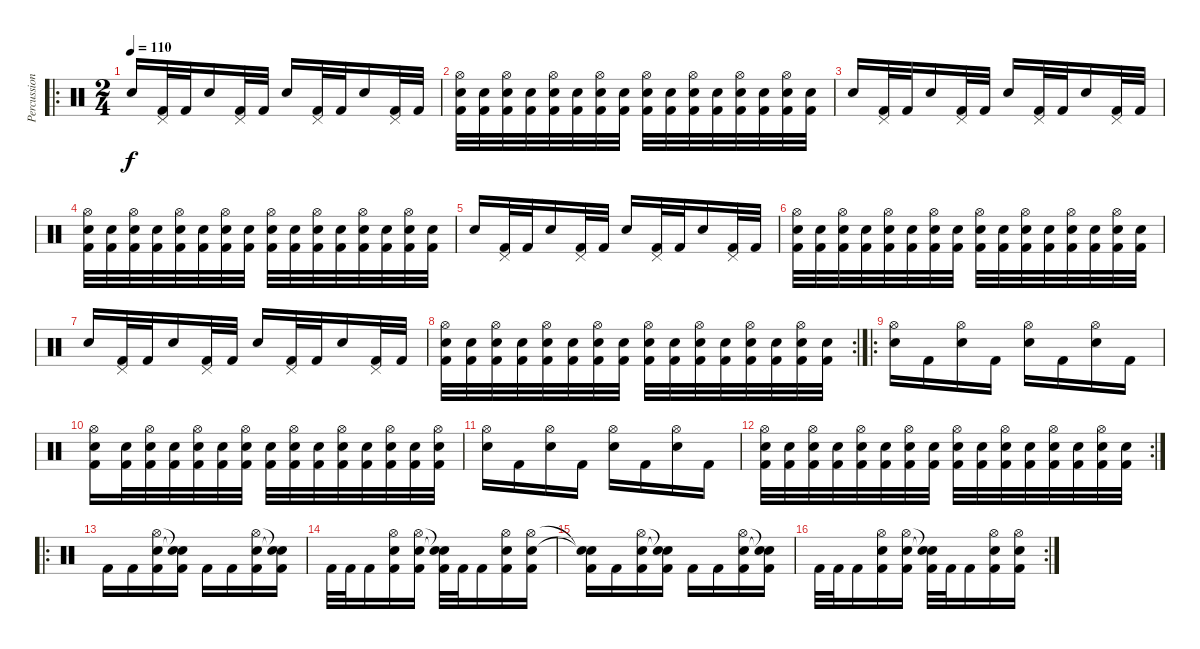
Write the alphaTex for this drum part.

\track ("Percussion" "Percussion") {instrument percussion}
\staff {score}
\articulation defaults
\ro
\ts (2 4)
\tempo 110
\clef neutral
\ks c "Snare (hit) 2".16{dy f}
("Pedal Hi-Hat (hit)" "Kick (hit) 2").32 "Kick (hit) 2".32 "Snare (hit) 2".16 ("Pedal Hi-Hat (hit)" "Kick (hit) 2").32 "Kick (hit) 2".32 "Snare (hit) 2".16 ("Pedal Hi-Hat (hit)" "Kick (hit) 2").32 "Kick (hit) 2".32 "Snare (hit) 2".16 ("Pedal Hi-Hat (hit)" "Kick (hit) 2").32 "Kick (hit) 2".32 |
("Snare (hit) 2" "Hi-Hat (open)" "Kick (hit) 2").32 ("Snare (hit) 2" "Kick (hit) 2").32 ("Snare (hit) 2" "Hi-Hat (open)" "Kick (hit) 2").32 ("Snare (hit) 2" "Kick (hit) 2").32 ("Snare (hit) 2" "Hi-Hat (open)" "Kick (hit) 2").32 ("Snare (hit) 2" "Kick (hit) 2").32 ("Snare (hit) 2" "Hi-Hat (open)" "Kick (hit) 2").32 ("Snare (hit) 2" "Kick (hit) 2").32 ("Snare (hit) 2" "Hi-Hat (open)" "Kick (hit) 2").32 ("Snare (hit) 2" "Kick (hit) 2").32 ("Snare (hit) 2" "Hi-Hat (open)" "Kick (hit) 2").32 ("Snare (hit) 2" "Kick (hit) 2").32 ("Snare (hit) 2" "Hi-Hat (open)" "Kick (hit) 2").32 ("Snare (hit) 2" "Kick (hit) 2").32 ("Snare (hit) 2" "Hi-Hat (open)" "Kick (hit) 2").32 ("Snare (hit) 2" "Kick (hit) 2").32 |
"Snare (hit) 2".16 ("Pedal Hi-Hat (hit)" "Kick (hit) 2").32 "Kick (hit) 2".32 "Snare (hit) 2".16 ("Pedal Hi-Hat (hit)" "Kick (hit) 2").32 "Kick (hit) 2".32 "Snare (hit) 2".16 ("Pedal Hi-Hat (hit)" "Kick (hit) 2").32 "Kick (hit) 2".32 "Snare (hit) 2".16 ("Pedal Hi-Hat (hit)" "Kick (hit) 2").32 "Kick (hit) 2".32 |
("Snare (hit) 2" "Hi-Hat (open)" "Kick (hit) 2").32 ("Snare (hit) 2" "Kick (hit) 2").32 ("Snare (hit) 2" "Hi-Hat (open)" "Kick (hit) 2").32 ("Snare (hit) 2" "Kick (hit) 2").32 ("Snare (hit) 2" "Hi-Hat (open)" "Kick (hit) 2").32 ("Snare (hit) 2" "Kick (hit) 2").32 ("Snare (hit) 2" "Hi-Hat (open)" "Kick (hit) 2").32 ("Snare (hit) 2" "Kick (hit) 2").32 ("Snare (hit) 2" "Hi-Hat (open)" "Kick (hit) 2").32 ("Snare (hit) 2" "Kick (hit) 2").32 ("Snare (hit) 2" "Hi-Hat (open)" "Kick (hit) 2").32 ("Snare (hit) 2" "Kick (hit) 2").32 ("Snare (hit) 2" "Hi-Hat (open)" "Kick (hit) 2").32 ("Snare (hit) 2" "Kick (hit) 2").32 ("Snare (hit) 2" "Hi-Hat (open)" "Kick (hit) 2").32 ("Snare (hit) 2" "Kick (hit) 2").32 |
"Snare (hit) 2".16 ("Pedal Hi-Hat (hit)" "Kick (hit) 2").32 "Kick (hit) 2".32 "Snare (hit) 2".16 ("Pedal Hi-Hat (hit)" "Kick (hit) 2").32 "Kick (hit) 2".32 "Snare (hit) 2".16 ("Pedal Hi-Hat (hit)" "Kick (hit) 2").32 "Kick (hit) 2".32 "Snare (hit) 2".16 ("Pedal Hi-Hat (hit)" "Kick (hit) 2").32 "Kick (hit) 2".32 |
("Snare (hit) 2" "Hi-Hat (open)" "Kick (hit) 2").32 ("Snare (hit) 2" "Kick (hit) 2").32 ("Snare (hit) 2" "Hi-Hat (open)" "Kick (hit) 2").32 ("Snare (hit) 2" "Kick (hit) 2").32 ("Snare (hit) 2" "Hi-Hat (open)" "Kick (hit) 2").32 ("Snare (hit) 2" "Kick (hit) 2").32 ("Snare (hit) 2" "Hi-Hat (open)" "Kick (hit) 2").32 ("Snare (hit) 2" "Kick (hit) 2").32 ("Snare (hit) 2" "Hi-Hat (open)" "Kick (hit) 2").32 ("Snare (hit) 2" "Kick (hit) 2").32 ("Snare (hit) 2" "Hi-Hat (open)" "Kick (hit) 2").32 ("Snare (hit) 2" "Kick (hit) 2").32 ("Snare (hit) 2" "Hi-Hat (open)" "Kick (hit) 2").32 ("Snare (hit) 2" "Kick (hit) 2").32 ("Snare (hit) 2" "Hi-Hat (open)" "Kick (hit) 2").32 ("Snare (hit) 2" "Kick (hit) 2").32 |
"Snare (hit) 2".16 ("Pedal Hi-Hat (hit)" "Kick (hit) 2").32 "Kick (hit) 2".32 "Snare (hit) 2".16 ("Pedal Hi-Hat (hit)" "Kick (hit) 2").32 "Kick (hit) 2".32 "Snare (hit) 2".16 ("Pedal Hi-Hat (hit)" "Kick (hit) 2").32 "Kick (hit) 2".32 "Snare (hit) 2".16 ("Pedal Hi-Hat (hit)" "Kick (hit) 2").32 "Kick (hit) 2".32 |
\rc 2
("Snare (hit) 2" "Hi-Hat (open)" "Kick (hit) 2").32 ("Snare (hit) 2" "Kick (hit) 2").32 ("Snare (hit) 2" "Hi-Hat (open)" "Kick (hit) 2").32 ("Snare (hit) 2" "Kick (hit) 2").32 ("Snare (hit) 2" "Hi-Hat (open)" "Kick (hit) 2").32 ("Snare (hit) 2" "Kick (hit) 2").32 ("Snare (hit) 2" "Hi-Hat (open)" "Kick (hit) 2").32 ("Snare (hit) 2" "Kick (hit) 2").32 ("Snare (hit) 2" "Hi-Hat (open)" "Kick (hit) 2").32 ("Snare (hit) 2" "Kick (hit) 2").32 ("Snare (hit) 2" "Hi-Hat (open)" "Kick (hit) 2").32 ("Snare (hit) 2" "Kick (hit) 2").32 ("Snare (hit) 2" "Hi-Hat (open)" "Kick (hit) 2").32 ("Snare (hit) 2" "Kick (hit) 2").32 ("Snare (hit) 2" "Hi-Hat (open)" "Kick (hit) 2").32 ("Snare (hit) 2" "Kick (hit) 2").32 |
\ro
("Hi-Hat (open)" "Snare (hit) 2").16 "Kick (hit) 2".16 ("Hi-Hat (open)" "Snare (hit) 2").16 "Kick (hit) 2".16 ("Hi-Hat (open)" "Snare (hit) 2").16 "Kick (hit) 2".16 ("Hi-Hat (open)" "Snare (hit) 2").16 "Kick (hit) 2".16 |
("Snare (hit) 2" "Hi-Hat (open)" "Kick (hit) 2").16 ("Snare (hit) 2" "Kick (hit) 2").32 ("Snare (hit) 2" "Hi-Hat (open)" "Kick (hit) 2").32 ("Snare (hit) 2" "Kick (hit) 2").32 ("Snare (hit) 2" "Hi-Hat (open)" "Kick (hit) 2").32 ("Snare (hit) 2" "Kick (hit) 2").32 ("Snare (hit) 2" "Hi-Hat (open)" "Kick (hit) 2").32 ("Snare (hit) 2" "Kick (hit) 2").32 ("Snare (hit) 2" "Hi-Hat (open)" "Kick (hit) 2").32 ("Snare (hit) 2" "Kick (hit) 2").32 ("Snare (hit) 2" "Hi-Hat (open)" "Kick (hit) 2").32 ("Snare (hit) 2" "Kick (hit) 2").32 ("Snare (hit) 2" "Hi-Hat (open)" "Kick (hit) 2").32 ("Snare (hit) 2" "Kick (hit) 2").32 ("Snare (hit) 2" "Hi-Hat (open)" "Kick (hit) 2").32 |
("Hi-Hat (open)" "Snare (hit) 2").16 "Kick (hit) 2".16 ("Hi-Hat (open)" "Snare (hit) 2").16 "Kick (hit) 2".16 ("Hi-Hat (open)" "Snare (hit) 2").16 "Kick (hit) 2".16 ("Hi-Hat (open)" "Snare (hit) 2").16 "Kick (hit) 2".16 |
\rc 2
("Snare (hit) 2" "Hi-Hat (open)" "Kick (hit) 2").32 ("Snare (hit) 2" "Kick (hit) 2").32 ("Snare (hit) 2" "Hi-Hat (open)" "Kick (hit) 2").32 ("Snare (hit) 2" "Kick (hit) 2").32 ("Snare (hit) 2" "Hi-Hat (open)" "Kick (hit) 2").32 ("Snare (hit) 2" "Kick (hit) 2").32 ("Snare (hit) 2" "Hi-Hat (open)" "Kick (hit) 2").32 ("Snare (hit) 2" "Kick (hit) 2").32 ("Snare (hit) 2" "Hi-Hat (open)" "Kick (hit) 2").32 ("Snare (hit) 2" "Kick (hit) 2").32 ("Snare (hit) 2" "Hi-Hat (open)" "Kick (hit) 2").32 ("Snare (hit) 2" "Kick (hit) 2").32 ("Snare (hit) 2" "Hi-Hat (open)" "Kick (hit) 2").32 ("Snare (hit) 2" "Kick (hit) 2").32 ("Snare (hit) 2" "Hi-Hat (open)" "Kick (hit) 2").32 ("Snare (hit) 2" "Kick (hit) 2").32 |
\ro "Kick (hit) 2".16 "Kick (hit) 2".16
("Hi-Hat (open)" "Snare (hit) 2" "Kick (hit) 2").16 ("Snare (hit)"{t} "Snare (hit)"{t} "Kick (hit) 2").16 "Kick (hit) 2".16 "Kick (hit) 2".16 ("Hi-Hat (open)" "Snare (hit) 2" "Kick (hit) 2").16 ("Snare (hit)"{t} "Snare (hit)"{t} "Kick (hit) 2").16 |
"Kick (hit) 2".32 "Kick (hit) 2".32 "Kick (hit) 2".16 ("Hi-Hat (open)" "Snare (hit) 2" "Kick (hit) 2").16 ("Hi-Hat (open)" "Snare (hit) 2" "Kick (hit) 2").16 ("Snare (hit)"{t} "Snare (hit)"{t} "Kick (hit) 2").32 "Kick (hit) 2".32 "Kick (hit) 2".16 ("Hi-Hat (open)" "Snare (hit) 2" "Kick (hit) 2").16 ("Hi-Hat (open)" "Snare (hit) 2" "Kick (hit) 2").16 |
("Snare (hit)"{t} "Snare (hit)"{t} "Kick (hit) 2").16 "Kick (hit) 2".16 ("Hi-Hat (open)" "Snare (hit) 2" "Kick (hit) 2").16 ("Snare (hit)"{t} "Snare (hit)"{t} "Kick (hit) 2").16 "Kick (hit) 2".16 "Kick (hit) 2".16 ("Hi-Hat (open)" "Snare (hit) 2" "Kick (hit) 2").16 ("Snare (hit)"{t} "Snare (hit)"{t} "Kick (hit) 2").16 |
\rc 2 "Kick (hit) 2".32 "Kick (hit) 2".32 "Kick (hit) 2".16
("Hi-Hat (open)" "Snare (hit) 2" "Kick (hit) 2").16 ("Hi-Hat (open)" "Snare (hit) 2" "Kick (hit) 2").16 ("Snare (hit)"{t} "Snare (hit)"{t} "Kick (hit) 2").32 "Kick (hit) 2".32 "Kick (hit) 2".16 ("Hi-Hat (open)" "Snare (hit) 2" "Kick (hit) 2").16 ("Hi-Hat (open)" "Snare (hit) 2" "Kick (hit) 2").16
